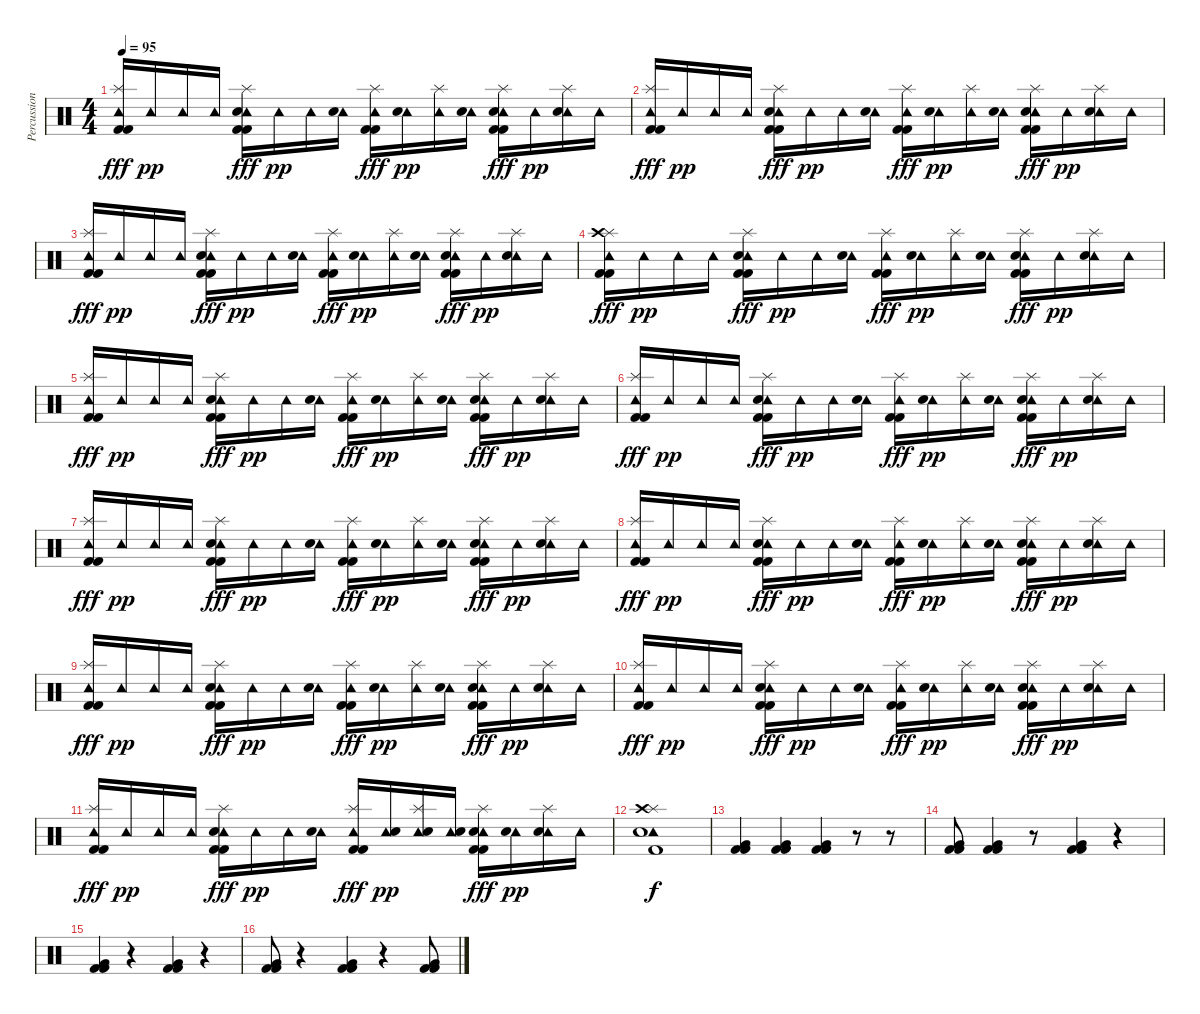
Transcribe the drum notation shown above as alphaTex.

\track ("Percussion" "Percussion") {instrument percussion}
\staff {score}
\articulation defaults
\ts (4 4)
\tempo 95
\clef neutral
\ks c
("Tambourine (hit)" "Splash (hit)" "Kick (hit) 2" "Kick (hit) 2").16{dy fff} "Tambourine (hit)".16{dy pp} "Tambourine (hit)".16 "Tambourine (hit)".16 ("Tambourine (hit)" "Splash (hit)" "Electric Snare (hit)" "Kick (hit) 2" "Kick (hit) 2").16{dy fff} "Tambourine (hit)".16{dy pp} "Tambourine (hit)".16 ("Tambourine (hit)" "Electric Snare (hit)").16 ("Tambourine (hit)" "Splash (hit)" "Kick (hit) 2" "Kick (hit) 2").16{dy fff} ("Tambourine (hit)" "Electric Snare (hit)").16{dy pp} ("Tambourine (hit)" "Splash (hit)").16 ("Tambourine (hit)" "Electric Snare (hit)").16 ("Tambourine (hit)" "Splash (hit)" "Electric Snare (hit)" "Kick (hit) 2" "Kick (hit) 2").16{dy fff} "Tambourine (hit)".16{dy pp} ("Tambourine (hit)" "Splash (hit)" "Electric Snare (hit)").16 "Tambourine (hit)".16 |
("Tambourine (hit)" "Splash (hit)" "Kick (hit) 2" "Kick (hit) 2").16{dy fff} "Tambourine (hit)".16{dy pp} "Tambourine (hit)".16 "Tambourine (hit)".16 ("Tambourine (hit)" "Splash (hit)" "Electric Snare (hit)" "Kick (hit) 2" "Kick (hit) 2").16{dy fff} "Tambourine (hit)".16{dy pp} "Tambourine (hit)".16 ("Tambourine (hit)" "Electric Snare (hit)").16 ("Tambourine (hit)" "Splash (hit)" "Kick (hit) 2" "Kick (hit) 2").16{dy fff} ("Tambourine (hit)" "Electric Snare (hit)").16{dy pp} ("Tambourine (hit)" "Splash (hit)").16 ("Tambourine (hit)" "Electric Snare (hit)").16 ("Tambourine (hit)" "Splash (hit)" "Electric Snare (hit)" "Kick (hit) 2" "Kick (hit) 2").16{dy fff} "Tambourine (hit)".16{dy pp} ("Tambourine (hit)" "Splash (hit)" "Electric Snare (hit)").16 "Tambourine (hit)".16 |
("Tambourine (hit)" "Splash (hit)" "Kick (hit) 2" "Kick (hit) 2").16{dy fff} "Tambourine (hit)".16{dy pp} "Tambourine (hit)".16 "Tambourine (hit)".16 ("Tambourine (hit)" "Splash (hit)" "Electric Snare (hit)" "Kick (hit) 2" "Kick (hit) 2").16{dy fff} "Tambourine (hit)".16{dy pp} "Tambourine (hit)".16 ("Tambourine (hit)" "Electric Snare (hit)").16 ("Tambourine (hit)" "Splash (hit)" "Kick (hit) 2" "Kick (hit) 2").16{dy fff} ("Tambourine (hit)" "Electric Snare (hit)").16{dy pp} ("Tambourine (hit)" "Splash (hit)").16 ("Tambourine (hit)" "Electric Snare (hit)").16 ("Tambourine (hit)" "Splash (hit)" "Electric Snare (hit)" "Kick (hit) 2" "Kick (hit) 2").16{dy fff} "Tambourine (hit)".16{dy pp} ("Tambourine (hit)" "Splash (hit)" "Electric Snare (hit)").16 "Tambourine (hit)".16 |
("Tambourine (hit)" "Splash (hit)" "Crash high (hit)" "Kick (hit) 2" "Kick (hit) 2").16{dy fff} "Tambourine (hit)".16{dy pp} "Tambourine (hit)".16 "Tambourine (hit)".16 ("Tambourine (hit)" "Splash (hit)" "Electric Snare (hit)" "Kick (hit) 2" "Kick (hit) 2").16{dy fff} "Tambourine (hit)".16{dy pp} "Tambourine (hit)".16 ("Tambourine (hit)" "Electric Snare (hit)").16 ("Tambourine (hit)" "Splash (hit)" "Kick (hit) 2" "Kick (hit) 2").16{dy fff} ("Tambourine (hit)" "Electric Snare (hit)").16{dy pp} ("Tambourine (hit)" "Splash (hit)").16 ("Tambourine (hit)" "Electric Snare (hit)").16 ("Tambourine (hit)" "Splash (hit)" "Electric Snare (hit)" "Kick (hit) 2" "Kick (hit) 2").16{dy fff} "Tambourine (hit)".16{dy pp} ("Tambourine (hit)" "Splash (hit)" "Electric Snare (hit)").16 "Tambourine (hit)".16 |
("Tambourine (hit)" "Splash (hit)" "Kick (hit) 2" "Kick (hit) 2").16{dy fff} "Tambourine (hit)".16{dy pp} "Tambourine (hit)".16 "Tambourine (hit)".16 ("Tambourine (hit)" "Splash (hit)" "Electric Snare (hit)" "Kick (hit) 2" "Kick (hit) 2").16{dy fff} "Tambourine (hit)".16{dy pp} "Tambourine (hit)".16 ("Tambourine (hit)" "Electric Snare (hit)").16 ("Tambourine (hit)" "Splash (hit)" "Kick (hit) 2" "Kick (hit) 2").16{dy fff} ("Tambourine (hit)" "Electric Snare (hit)").16{dy pp} ("Tambourine (hit)" "Splash (hit)").16 ("Tambourine (hit)" "Electric Snare (hit)").16 ("Tambourine (hit)" "Splash (hit)" "Electric Snare (hit)" "Kick (hit) 2" "Kick (hit) 2").16{dy fff} "Tambourine (hit)".16{dy pp} ("Tambourine (hit)" "Splash (hit)" "Electric Snare (hit)").16 "Tambourine (hit)".16 |
("Tambourine (hit)" "Splash (hit)" "Kick (hit) 2" "Kick (hit) 2").16{dy fff} "Tambourine (hit)".16{dy pp} "Tambourine (hit)".16 "Tambourine (hit)".16 ("Tambourine (hit)" "Splash (hit)" "Electric Snare (hit)" "Kick (hit) 2" "Kick (hit) 2").16{dy fff} "Tambourine (hit)".16{dy pp} "Tambourine (hit)".16 ("Tambourine (hit)" "Electric Snare (hit)").16 ("Tambourine (hit)" "Splash (hit)" "Kick (hit) 2" "Kick (hit) 2").16{dy fff} ("Tambourine (hit)" "Electric Snare (hit)").16{dy pp} ("Tambourine (hit)" "Splash (hit)").16 ("Tambourine (hit)" "Electric Snare (hit)").16 ("Tambourine (hit)" "Splash (hit)" "Electric Snare (hit)" "Kick (hit) 2" "Kick (hit) 2").16{dy fff} "Tambourine (hit)".16{dy pp} ("Tambourine (hit)" "Splash (hit)" "Electric Snare (hit)").16 "Tambourine (hit)".16 |
("Tambourine (hit)" "Splash (hit)" "Kick (hit) 2" "Kick (hit) 2").16{dy fff} "Tambourine (hit)".16{dy pp} "Tambourine (hit)".16 "Tambourine (hit)".16 ("Tambourine (hit)" "Splash (hit)" "Electric Snare (hit)" "Kick (hit) 2" "Kick (hit) 2").16{dy fff} "Tambourine (hit)".16{dy pp} "Tambourine (hit)".16 ("Tambourine (hit)" "Electric Snare (hit)").16 ("Tambourine (hit)" "Splash (hit)" "Kick (hit) 2" "Kick (hit) 2").16{dy fff} ("Tambourine (hit)" "Electric Snare (hit)").16{dy pp} ("Tambourine (hit)" "Splash (hit)").16 ("Tambourine (hit)" "Electric Snare (hit)").16 ("Tambourine (hit)" "Splash (hit)" "Electric Snare (hit)" "Kick (hit) 2" "Kick (hit) 2").16{dy fff} "Tambourine (hit)".16{dy pp} ("Tambourine (hit)" "Splash (hit)" "Electric Snare (hit)").16 "Tambourine (hit)".16 |
("Tambourine (hit)" "Splash (hit)" "Kick (hit) 2" "Kick (hit) 2").16{dy fff} "Tambourine (hit)".16{dy pp} "Tambourine (hit)".16 "Tambourine (hit)".16 ("Tambourine (hit)" "Splash (hit)" "Electric Snare (hit)" "Kick (hit) 2" "Kick (hit) 2").16{dy fff} "Tambourine (hit)".16{dy pp} "Tambourine (hit)".16 ("Tambourine (hit)" "Electric Snare (hit)").16 ("Tambourine (hit)" "Splash (hit)" "Kick (hit) 2" "Kick (hit) 2").16{dy fff} ("Tambourine (hit)" "Electric Snare (hit)").16{dy pp} ("Tambourine (hit)" "Splash (hit)").16 ("Tambourine (hit)" "Electric Snare (hit)").16 ("Tambourine (hit)" "Splash (hit)" "Electric Snare (hit)" "Kick (hit) 2" "Kick (hit) 2").16{dy fff} "Tambourine (hit)".16{dy pp} ("Tambourine (hit)" "Splash (hit)" "Electric Snare (hit)").16 "Tambourine (hit)".16 |
("Tambourine (hit)" "Splash (hit)" "Kick (hit) 2" "Kick (hit) 2").16{dy fff} "Tambourine (hit)".16{dy pp} "Tambourine (hit)".16 "Tambourine (hit)".16 ("Tambourine (hit)" "Splash (hit)" "Electric Snare (hit)" "Kick (hit) 2" "Kick (hit) 2").16{dy fff} "Tambourine (hit)".16{dy pp} "Tambourine (hit)".16 ("Tambourine (hit)" "Electric Snare (hit)").16 ("Tambourine (hit)" "Splash (hit)" "Kick (hit) 2" "Kick (hit) 2").16{dy fff} ("Tambourine (hit)" "Electric Snare (hit)").16{dy pp} ("Tambourine (hit)" "Splash (hit)").16 ("Tambourine (hit)" "Electric Snare (hit)").16 ("Tambourine (hit)" "Splash (hit)" "Electric Snare (hit)" "Kick (hit) 2" "Kick (hit) 2").16{dy fff} "Tambourine (hit)".16{dy pp} ("Tambourine (hit)" "Splash (hit)" "Electric Snare (hit)").16 "Tambourine (hit)".16 |
("Tambourine (hit)" "Splash (hit)" "Kick (hit) 2" "Kick (hit) 2").16{dy fff} "Tambourine (hit)".16{dy pp} "Tambourine (hit)".16 "Tambourine (hit)".16 ("Tambourine (hit)" "Splash (hit)" "Electric Snare (hit)" "Kick (hit) 2" "Kick (hit) 2").16{dy fff} "Tambourine (hit)".16{dy pp} "Tambourine (hit)".16 ("Tambourine (hit)" "Electric Snare (hit)").16 ("Tambourine (hit)" "Splash (hit)" "Kick (hit) 2" "Kick (hit) 2").16{dy fff} ("Tambourine (hit)" "Electric Snare (hit)").16{dy pp} ("Tambourine (hit)" "Splash (hit)").16 ("Tambourine (hit)" "Electric Snare (hit)").16 ("Tambourine (hit)" "Splash (hit)" "Electric Snare (hit)" "Kick (hit) 2" "Kick (hit) 2").16{dy fff} "Tambourine (hit)".16{dy pp} ("Tambourine (hit)" "Splash (hit)" "Electric Snare (hit)").16 "Tambourine (hit)".16 |
("Tambourine (hit)" "Splash (hit)" "Kick (hit) 2" "Kick (hit) 2").16{dy fff} "Tambourine (hit)".16{dy pp} "Tambourine (hit)".16 "Tambourine (hit)".16 ("Tambourine (hit)" "Splash (hit)" "Electric Snare (hit)" "Kick (hit) 2" "Kick (hit) 2").16{dy fff} "Tambourine (hit)".16{dy pp} "Tambourine (hit)".16 ("Tambourine (hit)" "Electric Snare (hit)").16 ("Tambourine (hit)" "Splash (hit)" "Kick (hit) 2" "Kick (hit) 2").16{dy fff} ("Tambourine (hit)" "Electric Snare (hit)").16{dy pp} ("Tambourine (hit)" "Splash (hit)" "Electric Snare (hit)").16 ("Tambourine (hit)" "Snare (hit) 2").16 ("Tambourine (hit)" "Splash (hit)" "Snare (hit) 2" "Kick (hit) 2" "Kick (hit) 2").16{dy fff} ("Tambourine (hit)" "Snare (hit) 2").16{dy pp} ("Tambourine (hit)" "Splash (hit)" "Snare (hit) 2").16 "Tambourine (hit)".16 |
("Tambourine (hit)" "Splash (hit)" "Electric Snare (hit)" "Kick (hit) 2" "Crash high (hit)").1{dy f} |
("Very Low Tom (hit)" "Kick (hit) 2" "Kick (hit) 2").4 ("Very Low Tom (hit)" "Kick (hit) 2" "Kick (hit) 2").4 ("Very Low Tom (hit)" "Kick (hit) 2" "Kick (hit) 2").4 r.8 r.8 |
("Very Low Tom (hit)" "Kick (hit) 2" "Kick (hit) 2").8 ("Very Low Tom (hit)" "Kick (hit) 2" "Kick (hit) 2").4 r.8 ("Very Low Tom (hit)" "Kick (hit) 2" "Kick (hit) 2").4 r.4 |
("Very Low Tom (hit)" "Kick (hit) 2" "Kick (hit) 2").4 r.4 ("Very Low Tom (hit)" "Kick (hit) 2" "Kick (hit) 2").4 r.4 |
("Very Low Tom (hit)" "Kick (hit) 2" "Kick (hit) 2").8 r.4 ("Very Low Tom (hit)" "Kick (hit) 2" "Kick (hit) 2").4 r.4 ("Very Low Tom (hit)" "Kick (hit) 2" "Kick (hit) 2").8
